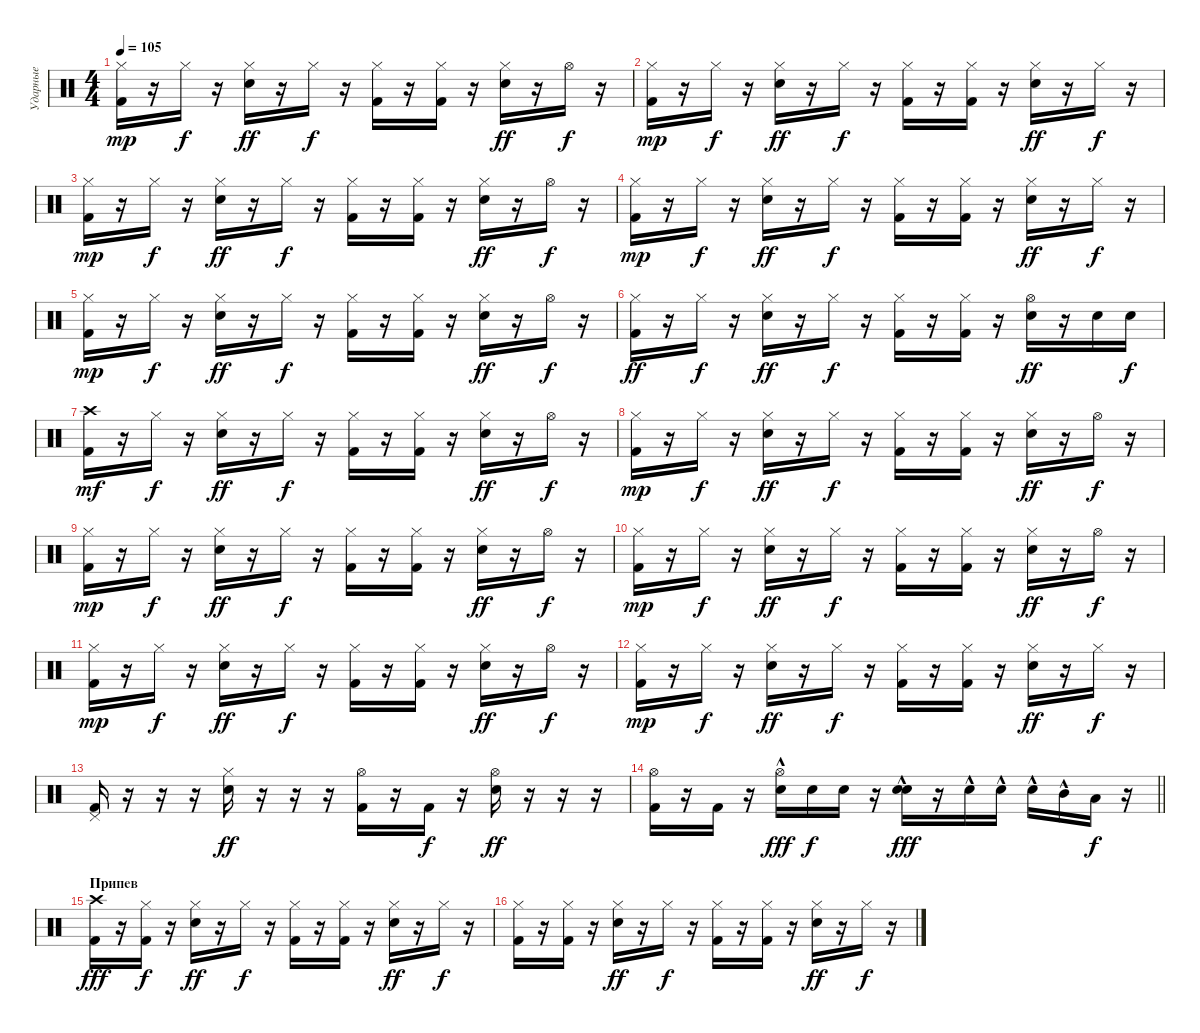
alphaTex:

\track ("Ударные" "Ударные") {instrument percussion}
\staff {score}
\articulation defaults
\ts (4 4)
\tempo 105
\clef neutral
\ks c
("Hi-Hat (closed)" "Kick (hit) 2").16{dy mp} r.16 "Hi-Hat (closed)".16{dy f} r.16 ("Hi-Hat (closed)" "Electric Snare (hit)").16{dy ff} r.16 "Hi-Hat (closed)".16{dy f} r.16 ("Hi-Hat (closed)" "Kick (hit) 2").16 r.16 ("Hi-Hat (closed)" "Kick (hit) 2").16 r.16 ("Hi-Hat (closed)" "Electric Snare (hit)").16{dy ff} r.16 "Hi-Hat (open)".16{dy f} r.16 |
("Hi-Hat (closed)" "Kick (hit) 2").16{dy mp} r.16 "Hi-Hat (closed)".16{dy f} r.16 ("Hi-Hat (closed)" "Electric Snare (hit)").16{dy ff} r.16 "Hi-Hat (closed)".16{dy f} r.16 ("Hi-Hat (closed)" "Kick (hit) 2").16 r.16 ("Hi-Hat (closed)" "Kick (hit) 2").16 r.16 ("Hi-Hat (closed)" "Electric Snare (hit)").16{dy ff} r.16 "Hi-Hat (closed)".16{dy f} r.16 |
("Hi-Hat (closed)" "Kick (hit) 2").16{dy mp} r.16 "Hi-Hat (closed)".16{dy f} r.16 ("Hi-Hat (closed)" "Electric Snare (hit)").16{dy ff} r.16 "Hi-Hat (closed)".16{dy f} r.16 ("Hi-Hat (closed)" "Kick (hit) 2").16 r.16 ("Hi-Hat (closed)" "Kick (hit) 2").16 r.16 ("Hi-Hat (closed)" "Electric Snare (hit)").16{dy ff} r.16 "Hi-Hat (open)".16{dy f} r.16 |
("Hi-Hat (closed)" "Kick (hit) 2").16{dy mp} r.16 "Hi-Hat (closed)".16{dy f} r.16 ("Hi-Hat (closed)" "Electric Snare (hit)").16{dy ff} r.16 "Hi-Hat (closed)".16{dy f} r.16 ("Hi-Hat (closed)" "Kick (hit) 2").16 r.16 ("Hi-Hat (closed)" "Kick (hit) 2").16 r.16 ("Hi-Hat (closed)" "Electric Snare (hit)").16{dy ff} r.16 "Hi-Hat (closed)".16{dy f} r.16 |
("Hi-Hat (closed)" "Kick (hit) 2").16{dy mp} r.16 "Hi-Hat (closed)".16{dy f} r.16 ("Hi-Hat (closed)" "Electric Snare (hit)").16{dy ff} r.16 "Hi-Hat (closed)".16{dy f} r.16 ("Hi-Hat (closed)" "Kick (hit) 2").16 r.16 ("Hi-Hat (closed)" "Kick (hit) 2").16 r.16 ("Hi-Hat (closed)" "Electric Snare (hit)").16{dy ff} r.16 "Hi-Hat (open)".16{dy f} r.16 |
("Hi-Hat (closed)" "Kick (hit) 2").16{dy ff} r.16 "Hi-Hat (closed)".16{dy f} r.16 ("Hi-Hat (closed)" "Electric Snare (hit)").16{dy ff} r.16 "Hi-Hat (closed)".16{dy f} r.16 ("Hi-Hat (closed)" "Kick (hit) 2").16 r.16 ("Hi-Hat (closed)" "Kick (hit) 2").16 r.16 ("Hi-Hat (open)" "Electric Snare (hit)").16{dy ff} r.16 "Electric Snare (hit)".16 "Electric Snare (hit)".16{dy f} |
("Crash high (hit)" "Kick (hit) 2").16{dy mf} r.16 "Hi-Hat (closed)".16{dy f} r.16 ("Hi-Hat (closed)" "Electric Snare (hit)").16{dy ff} r.16 "Hi-Hat (closed)".16{dy f} r.16 ("Hi-Hat (closed)" "Kick (hit) 2").16 r.16 ("Hi-Hat (closed)" "Kick (hit) 2").16 r.16 ("Hi-Hat (closed)" "Electric Snare (hit)").16{dy ff} r.16 "Hi-Hat (open)".16{dy f} r.16 |
("Hi-Hat (closed)" "Kick (hit) 2").16{dy mp} r.16 "Hi-Hat (closed)".16{dy f} r.16 ("Hi-Hat (closed)" "Electric Snare (hit)").16{dy ff} r.16 "Hi-Hat (closed)".16{dy f} r.16 ("Hi-Hat (closed)" "Kick (hit) 2").16 r.16 ("Hi-Hat (closed)" "Kick (hit) 2").16 r.16 ("Hi-Hat (closed)" "Electric Snare (hit)").16{dy ff} r.16 "Hi-Hat (open)".16{dy f} r.16 |
("Hi-Hat (closed)" "Kick (hit) 2").16{dy mp} r.16 "Hi-Hat (closed)".16{dy f} r.16 ("Hi-Hat (closed)" "Electric Snare (hit)").16{dy ff} r.16 "Hi-Hat (closed)".16{dy f} r.16 ("Hi-Hat (closed)" "Kick (hit) 2").16 r.16 ("Hi-Hat (closed)" "Kick (hit) 2").16 r.16 ("Hi-Hat (closed)" "Electric Snare (hit)").16{dy ff} r.16 "Hi-Hat (open)".16{dy f} r.16 |
("Hi-Hat (closed)" "Kick (hit) 2").16{dy mp} r.16 "Hi-Hat (closed)".16{dy f} r.16 ("Hi-Hat (closed)" "Electric Snare (hit)").16{dy ff} r.16 "Hi-Hat (closed)".16{dy f} r.16 ("Hi-Hat (closed)" "Kick (hit) 2").16 r.16 ("Hi-Hat (closed)" "Kick (hit) 2").16 r.16 ("Hi-Hat (closed)" "Electric Snare (hit)").16{dy ff} r.16 "Hi-Hat (open)".16{dy f} r.16 |
("Hi-Hat (closed)" "Kick (hit) 2").16{dy mp} r.16 "Hi-Hat (closed)".16{dy f} r.16 ("Hi-Hat (closed)" "Electric Snare (hit)").16{dy ff} r.16 "Hi-Hat (closed)".16{dy f} r.16 ("Hi-Hat (closed)" "Kick (hit) 2").16 r.16 ("Hi-Hat (closed)" "Kick (hit) 2").16 r.16 ("Hi-Hat (closed)" "Electric Snare (hit)").16{dy ff} r.16 "Hi-Hat (open)".16{dy f} r.16 |
("Hi-Hat (closed)" "Kick (hit) 2").16{dy mp} r.16 "Hi-Hat (closed)".16{dy f} r.16 ("Hi-Hat (closed)" "Electric Snare (hit)").16{dy ff} r.16 "Hi-Hat (closed)".16{dy f} r.16 ("Hi-Hat (closed)" "Kick (hit) 2").16 r.16 ("Hi-Hat (closed)" "Kick (hit) 2").16 r.16 ("Hi-Hat (closed)" "Electric Snare (hit)").16{dy ff} r.16 "Hi-Hat (closed)".16{dy f} r.16 |
("Pedal Hi-Hat (hit)" "Kick (hit) 2").16 r.16 r.16 r.16 ("Hi-Hat (closed)" "Electric Snare (hit)").16{dy ff} r.16 r.16 r.16 ("Hi-Hat (open)" "Kick (hit) 2").16 r.16 "Kick (hit) 2".16{dy f} r.16 ("Hi-Hat (open)" "Electric Snare (hit)").16{dy ff} r.16 r.16 r.16 |
\barLineRight lightlight
("Hi-Hat (open)" "Kick (hit) 2").16 r.16 "Kick (hit) 2".16 r.16 ("Hi-Hat (open)" "Electric Snare (hit)"{hac}).16{dy fff} "Electric Snare (hit)".16{dy f} "Electric Snare (hit)".16 r.16 ("Electric Snare (hit)"{hac} "Electric Snare (hit)").16{bu 60 dy fff} r.16 "Electric Snare (hit)"{hac}.16 "Electric Snare (hit)"{hac}.16 "Electric Snare (hit)"{hac}.16 "Mid Tom (hit)"{hac}.16 "Low Tom (hit)".16{dy f} r.16 |
\section ("" "Припев")
("Crash high (hit)" "Kick (hit) 2").16{dy fff} r.16 ("Hi-Hat (closed)" "Kick (hit) 2").16{dy f} r.16 ("Hi-Hat (closed)" "Electric Snare (hit)").16{dy ff} r.16 "Hi-Hat (closed)".16{dy f} r.16 ("Hi-Hat (closed)" "Kick (hit) 2").16 r.16 ("Hi-Hat (closed)" "Kick (hit) 2").16 r.16 ("Hi-Hat (closed)" "Electric Snare (hit)").16{dy ff} r.16 "Hi-Hat (closed)".16{dy f} r.16 |
("Hi-Hat (closed)" "Kick (hit) 2").16 r.16 ("Hi-Hat (closed)" "Kick (hit) 2").16 r.16 ("Hi-Hat (closed)" "Electric Snare (hit)").16{dy ff} r.16 "Hi-Hat (closed)".16{dy f} r.16 ("Hi-Hat (closed)" "Kick (hit) 2").16 r.16 ("Hi-Hat (closed)" "Kick (hit) 2").16 r.16 ("Hi-Hat (closed)" "Electric Snare (hit)").16{dy ff} r.16 "Hi-Hat (closed)".16{dy f} r.16
